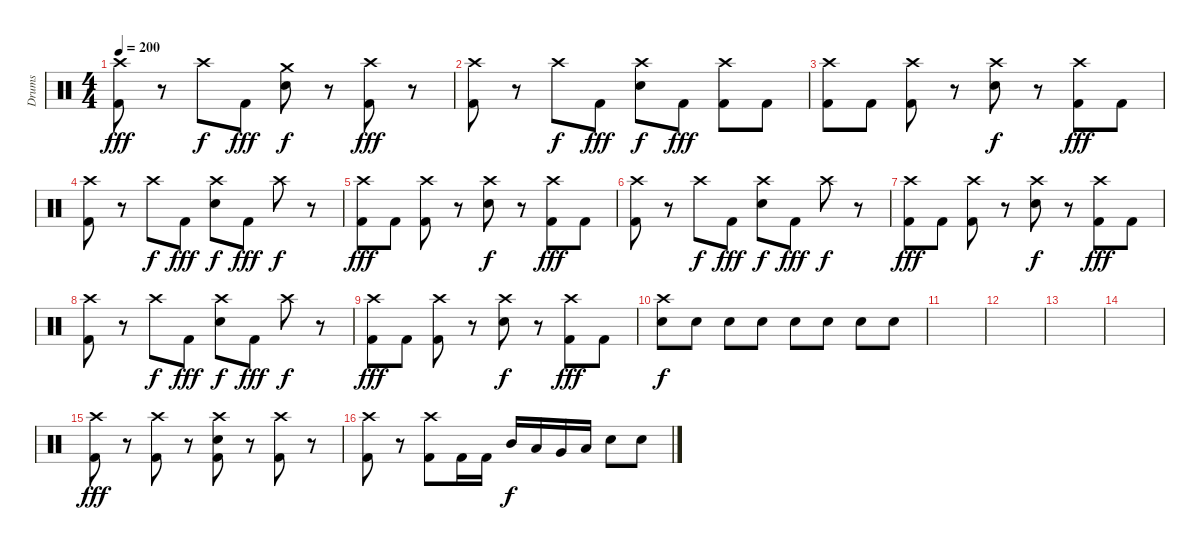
\track ("Drums" "Drums") {instrument percussion}
\staff {score}
\articulation defaults
\ts (4 4)
\tempo 200
\clef neutral
\ks c
("Crash high (hit)" "Kick (hit) 2").8{dy fff} r.8 "Crash high (hit)".8{dy f} "Kick (hit) 2".8{dy fff} ("Crash medium (hit)" "Electric Snare (hit)").8{dy f} r.8 ("Crash high (hit)" "Kick (hit) 2").8{dy fff} r.8 |
("Crash high (hit)" "Kick (hit) 2").8 r.8 "Crash high (hit)".8{dy f} "Kick (hit) 2".8{dy fff} ("Crash high (hit)" "Electric Snare (hit)").8{dy f} "Kick (hit) 2".8{dy fff} ("Crash high (hit)" "Kick (hit) 2").8 "Kick (hit) 2".8 |
("Crash high (hit)" "Kick (hit) 2").8 "Kick (hit) 2".8 ("Crash high (hit)" "Kick (hit) 2").8 r.8 ("Crash high (hit)" "Electric Snare (hit)").8{dy f} r.8 ("Crash high (hit)" "Kick (hit) 2").8{dy fff} "Kick (hit) 2".8 |
("Crash high (hit)" "Kick (hit) 2").8 r.8 "Crash high (hit)".8{dy f} "Kick (hit) 2".8{dy fff} ("Crash high (hit)" "Electric Snare (hit)").8{dy f} "Kick (hit) 2".8{dy fff} "Crash high (hit)".8{dy f} r.8 |
("Crash high (hit)" "Kick (hit) 2").8{dy fff} "Kick (hit) 2".8 ("Crash high (hit)" "Kick (hit) 2").8 r.8 ("Crash high (hit)" "Electric Snare (hit)").8{dy f} r.8 ("Crash high (hit)" "Kick (hit) 2").8{dy fff} "Kick (hit) 2".8 |
("Crash high (hit)" "Kick (hit) 2").8 r.8 "Crash high (hit)".8{dy f} "Kick (hit) 2".8{dy fff} ("Crash high (hit)" "Electric Snare (hit)").8{dy f} "Kick (hit) 2".8{dy fff} "Crash high (hit)".8{dy f} r.8 |
("Crash high (hit)" "Kick (hit) 2").8{dy fff} "Kick (hit) 2".8 ("Crash high (hit)" "Kick (hit) 2").8 r.8 ("Crash high (hit)" "Electric Snare (hit)").8{dy f} r.8 ("Crash high (hit)" "Kick (hit) 2").8{dy fff} "Kick (hit) 2".8 |
("Crash high (hit)" "Kick (hit) 2").8 r.8 "Crash high (hit)".8{dy f} "Kick (hit) 2".8{dy fff} ("Crash high (hit)" "Electric Snare (hit)").8{dy f} "Kick (hit) 2".8{dy fff} "Crash high (hit)".8{dy f} r.8 |
("Crash high (hit)" "Kick (hit) 2").8{dy fff} "Kick (hit) 2".8 ("Crash high (hit)" "Kick (hit) 2").8 r.8 ("Crash high (hit)" "Electric Snare (hit)").8{dy f} r.8 ("Crash high (hit)" "Kick (hit) 2").8{dy fff} "Kick (hit) 2".8 |
("Crash high (hit)" "Electric Snare (hit)").8{dy f} "Electric Snare (hit)".8 "Electric Snare (hit)".8 "Electric Snare (hit)".8 "Electric Snare (hit)".8 "Electric Snare (hit)".8 "Electric Snare (hit)".8 "Electric Snare (hit)".8 |
|
|
|
|
("Crash high (hit)" "Kick (hit) 2").8{dy fff} r.8 ("Crash high (hit)" "Kick (hit) 2").8 r.8 ("Crash high (hit)" "Electric Snare (hit)" "Kick (hit) 2").8 r.8 ("Crash high (hit)" "Kick (hit) 2").8 r.8 |
("Crash high (hit)" "Kick (hit) 2").8 r.8 ("Crash high (hit)" "Kick (hit) 2").8 "Kick (hit) 2".16 "Kick (hit) 2".16 "Mid Tom (hit)".16{dy f} "Low Tom (hit)".16 "Very Low Tom (hit)".16 "Low Floor Tom (hit)".16 "Electric Snare (hit)".8 "Electric Snare (hit)".8
